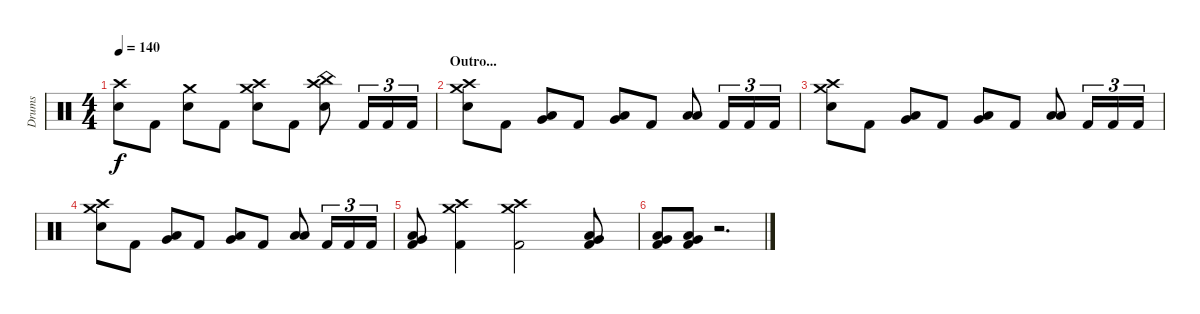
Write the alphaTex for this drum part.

\track ("Drums" "Drums") {instrument percussion}
\staff {score}
\articulation defaults
\ts (4 4)
\tempo 140
\clef neutral
\ks c
("Crash high (hit)" "Snare (hit) 2").8{dy f} "Kick (hit) 2".8 ("Crash medium (hit)" "Snare (hit) 2").8 "Kick (hit) 2".8 ("Crash high (hit)" "Crash medium (hit)" "Snare (hit) 2").8 "Kick (hit) 2".8 ("Crash high (hit)" "China (hit)" "Snare (hit) 2").8 "Kick (hit) 2".16{tu (3 2)} "Kick (hit) 2".16{tu (3 2)} "Kick (hit) 2".16{tu (3 2)} |
\section ("" "Outro...")
("Crash high (hit)" "Crash medium (hit)" "Snare (hit) 2").8 "Kick (hit) 2".8 ("Low Tom (hit)" "Very Low Tom (hit)").8 "Kick (hit) 2".8 ("Very Low Tom (hit)" "Low Floor Tom (hit)").8 "Kick (hit) 2".8 ("Low Floor Tom (hit)" "Low Floor Tom (hit)").8 "Kick (hit) 2".16{tu (3 2)} "Kick (hit) 2".16{tu (3 2)} "Kick (hit) 2".16{tu (3 2)} |
("Crash high (hit)" "Crash medium (hit)" "Snare (hit) 2").8 "Kick (hit) 2".8 ("Low Tom (hit)" "Very Low Tom (hit)").8 "Kick (hit) 2".8 ("Very Low Tom (hit)" "Low Floor Tom (hit)").8 "Kick (hit) 2".8 ("Low Floor Tom (hit)" "Low Floor Tom (hit)").8 "Kick (hit) 2".16{tu (3 2)} "Kick (hit) 2".16{tu (3 2)} "Kick (hit) 2".16{tu (3 2)} |
("Crash high (hit)" "Crash medium (hit)" "Snare (hit) 2").8 "Kick (hit) 2".8 ("Low Tom (hit)" "Very Low Tom (hit)").8 "Kick (hit) 2".8 ("Very Low Tom (hit)" "Low Floor Tom (hit)").8 "Kick (hit) 2".8 ("Low Floor Tom (hit)" "Low Floor Tom (hit)").8 "Kick (hit) 2".16{tu (3 2)} "Kick (hit) 2".16{tu (3 2)} "Kick (hit) 2".16{tu (3 2)} |
("Low Tom (hit)" "Very Low Tom (hit)" "Kick (hit) 2").8 ("Crash high (hit)" "Crash medium (hit)" "Kick (hit) 2").4 ("Crash high (hit)" "Crash medium (hit)" "Kick (hit) 2").2 ("Low Tom (hit)" "Very Low Tom (hit)" "Kick (hit) 2").8 |
("Low Tom (hit)" "Very Low Tom (hit)" "Kick (hit) 2").8 ("Very Low Tom (hit)" "Low Floor Tom (hit)" "Kick (hit) 2").8 r.2{d}
